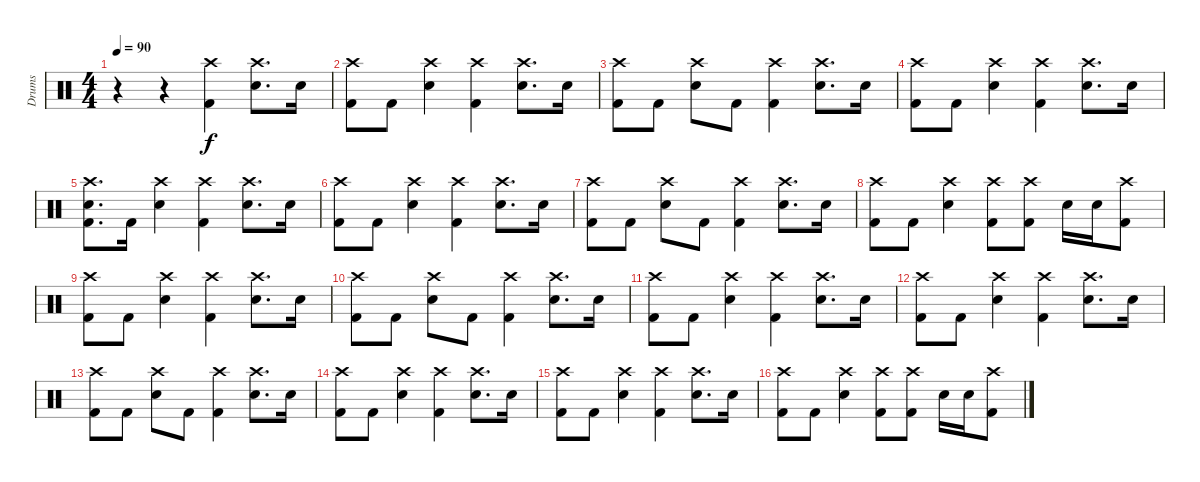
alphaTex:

\track ("Drums" "Drums") {instrument percussion}
\staff {score}
\articulation defaults
\ts (4 4)
\tempo 90
\clef neutral
\ks c
r.4{dy f} r.4 ("Crash high (hit)" "Kick (hit) 2").4 ("Crash high (hit)" "Snare (hit) 2").8{d} "Snare (hit) 2".16 |
("Crash high (hit)" "Kick (hit) 2").8 "Kick (hit) 2".8 ("Crash high (hit)" "Snare (hit) 2").4 ("Crash high (hit)" "Kick (hit) 2").4 ("Crash high (hit)" "Snare (hit) 2").8{d} "Snare (hit) 2".16 |
("Crash high (hit)" "Kick (hit) 2").8 "Kick (hit) 2".8 ("Crash high (hit)" "Snare (hit) 2").8 "Kick (hit) 2".8 ("Crash high (hit)" "Kick (hit) 2").4 ("Crash high (hit)" "Snare (hit) 2").8{d} "Snare (hit) 2".16 |
("Crash high (hit)" "Kick (hit) 2").8 "Kick (hit) 2".8 ("Crash high (hit)" "Snare (hit) 2").4 ("Crash high (hit)" "Kick (hit) 2").4 ("Crash high (hit)" "Snare (hit) 2").8{d} "Snare (hit) 2".16 |
("Crash high (hit)" "Snare (hit) 2" "Kick (hit) 2").8{d} "Kick (hit) 2".16 ("Crash high (hit)" "Snare (hit) 2").4 ("Crash high (hit)" "Kick (hit) 2").4 ("Crash high (hit)" "Snare (hit) 2").8{d} "Snare (hit) 2".16 |
("Crash high (hit)" "Kick (hit) 2").8 "Kick (hit) 2".8 ("Crash high (hit)" "Snare (hit) 2").4 ("Crash high (hit)" "Kick (hit) 2").4 ("Crash high (hit)" "Snare (hit) 2").8{d} "Snare (hit) 2".16 |
("Crash high (hit)" "Kick (hit) 2").8 "Kick (hit) 2".8 ("Crash high (hit)" "Snare (hit) 2").8 "Kick (hit) 2".8 ("Crash high (hit)" "Kick (hit) 2").4 ("Crash high (hit)" "Snare (hit) 2").8{d} "Snare (hit) 2".16 |
("Crash high (hit)" "Kick (hit) 2").8 "Kick (hit) 2".8 ("Crash high (hit)" "Snare (hit) 2").4 ("Crash high (hit)" "Kick (hit) 2").8 ("Crash high (hit)" "Kick (hit) 2").8 "Snare (hit) 2".16 "Snare (hit) 2".16 ("Crash high (hit)" "Kick (hit) 2").8 |
("Crash high (hit)" "Kick (hit) 2").8 "Kick (hit) 2".8 ("Crash high (hit)" "Snare (hit) 2").4 ("Crash high (hit)" "Kick (hit) 2").4 ("Crash high (hit)" "Snare (hit) 2").8{d} "Snare (hit) 2".16 |
("Crash high (hit)" "Kick (hit) 2").8 "Kick (hit) 2".8 ("Crash high (hit)" "Snare (hit) 2").8 "Kick (hit) 2".8 ("Crash high (hit)" "Kick (hit) 2").4 ("Crash high (hit)" "Snare (hit) 2").8{d} "Snare (hit) 2".16 |
("Crash high (hit)" "Kick (hit) 2").8 "Kick (hit) 2".8 ("Crash high (hit)" "Snare (hit) 2").4 ("Crash high (hit)" "Kick (hit) 2").4 ("Crash high (hit)" "Snare (hit) 2").8{d} "Snare (hit) 2".16 |
("Crash high (hit)" "Kick (hit) 2").8 "Kick (hit) 2".8 ("Crash high (hit)" "Snare (hit) 2").4 ("Crash high (hit)" "Kick (hit) 2").4 ("Crash high (hit)" "Snare (hit) 2").8{d} "Snare (hit) 2".16 |
("Crash high (hit)" "Kick (hit) 2").8 "Kick (hit) 2".8 ("Crash high (hit)" "Snare (hit) 2").8 "Kick (hit) 2".8 ("Crash high (hit)" "Kick (hit) 2").4 ("Crash high (hit)" "Snare (hit) 2").8{d} "Snare (hit) 2".16 |
("Crash high (hit)" "Kick (hit) 2").8 "Kick (hit) 2".8 ("Crash high (hit)" "Snare (hit) 2").4 ("Crash high (hit)" "Kick (hit) 2").4 ("Crash high (hit)" "Snare (hit) 2").8{d} "Snare (hit) 2".16 |
("Crash high (hit)" "Kick (hit) 2").8 "Kick (hit) 2".8 ("Crash high (hit)" "Snare (hit) 2").4 ("Crash high (hit)" "Kick (hit) 2").4 ("Crash high (hit)" "Snare (hit) 2").8{d} "Snare (hit) 2".16 |
("Crash high (hit)" "Kick (hit) 2").8 "Kick (hit) 2".8 ("Crash high (hit)" "Snare (hit) 2").4 ("Crash high (hit)" "Kick (hit) 2").8 ("Crash high (hit)" "Kick (hit) 2").8 "Snare (hit) 2".16 "Snare (hit) 2".16 ("Crash high (hit)" "Kick (hit) 2").8
